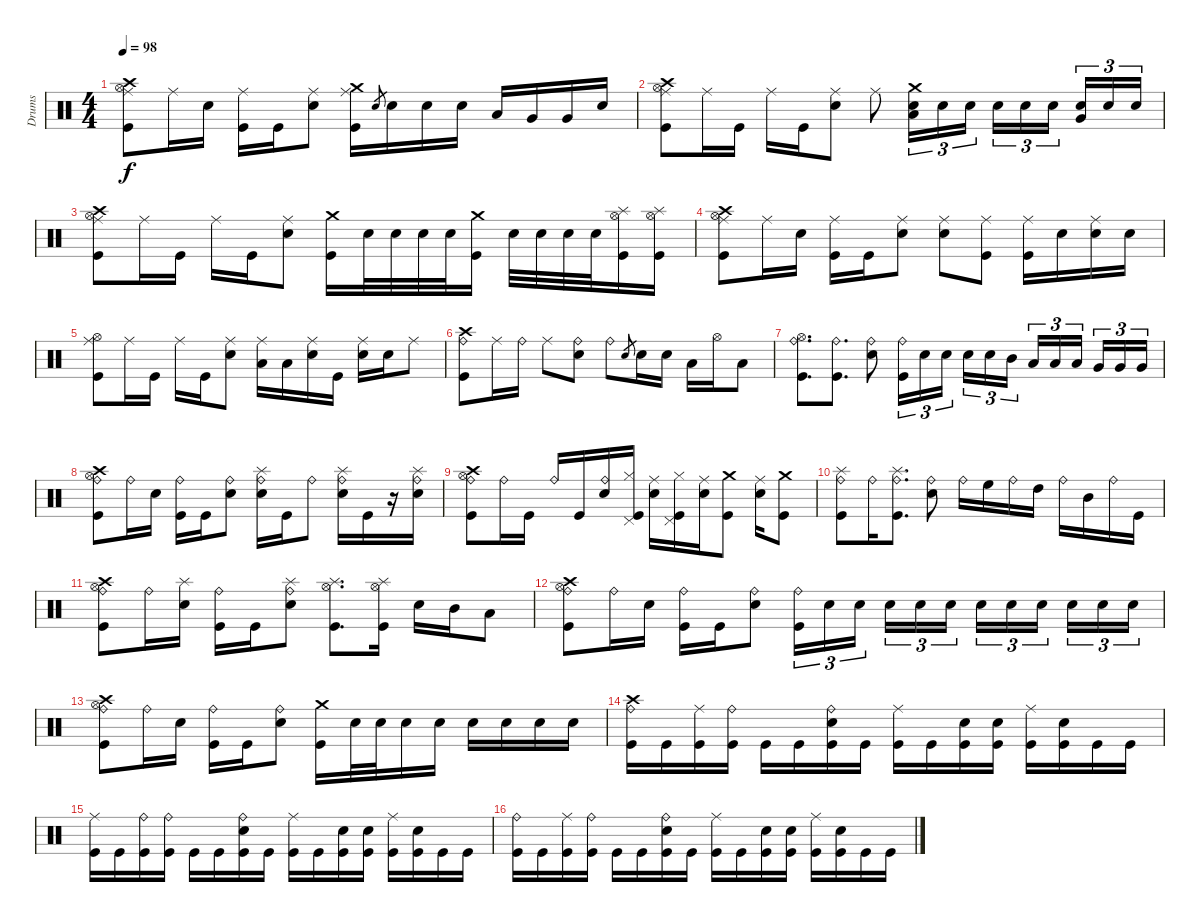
\track ("Drums" "Drums") {instrument percussion}
\staff {score}
\articulation defaults
\ts (4 4)
\tempo 98
\clef neutral
\ks aminor
("Ride (middle)" "Crash high (hit)" "Hi-Hat (open)" "Kick (hit)").8{dy f} "Ride (middle)".16 "Electric Snare (hit)".16 ("Ride (middle)" "Kick (hit)").16 "Kick (hit)".16 ("Ride (middle)" "Electric Snare (hit)").8 ("Crash medium (hit)" "Ride (middle)" "Kick (hit)").16 "Electric Snare (hit)".8{gr} "Electric Snare (hit)".16 "Electric Snare (hit)".16 "Electric Snare (hit)".16 "Low Tom (hit)".16 "Very Low Tom (hit)".16 "Very Low Tom (hit)".16 "Electric Snare (hit)".16 |
("Ride (middle)" "Crash high (hit)" "Hi-Hat (open)" "Kick (hit)").8 "Ride (middle)".16 "Kick (hit)".16 "Ride (middle)".16 "Kick (hit)".16 ("Ride (middle)" "Electric Snare (hit)").8 "Ride (middle)".8 ("Crash medium (hit)" "Low Tom (hit)" "Electric Snare (hit)").16{tu (3 2)} "Electric Snare (hit)".16{tu (3 2)} "Electric Snare (hit)".16{tu (3 2)} "Electric Snare (hit)".16{tu (3 2)} "Electric Snare (hit)".16{tu (3 2)} "Electric Snare (hit)".16{tu (3 2) beam splitsecondary} ("Very Low Tom (hit)" "Electric Snare (hit)").16{tu (3 2)} "Electric Snare (hit)".16{tu (3 2)} "Electric Snare (hit)".16{tu (3 2)} |
("Ride (middle)" "Crash high (hit)" "Hi-Hat (open)" "Kick (hit)").8 "Ride (middle)".16 "Kick (hit)".16 "Ride (middle)".16 "Kick (hit)".16 ("Ride (middle)" "Electric Snare (hit)").8 ("Crash medium (hit)" "Kick (hit)").16 "Electric Snare (hit)".32 "Electric Snare (hit)".32 "Electric Snare (hit)".32 "Electric Snare (hit)".32 ("Crash medium (hit)" "Kick (hit)").16 "Electric Snare (hit)".32 "Electric Snare (hit)".32 "Electric Snare (hit)".32 "Electric Snare (hit)".32 ("Splash (hit)" "Hi-Hat (open)" "Kick (hit)").16 ("Splash (hit)" "Hi-Hat (open)" "Kick (hit)").16 |
("Ride (middle)" "Crash high (hit)" "Hi-Hat (open)" "Kick (hit)").8 "Ride (middle)".16 "Electric Snare (hit)".16 ("Ride (middle)" "Kick (hit)").16 "Kick (hit)".16 ("Ride (middle)" "Electric Snare (hit)").8 ("Ride (middle)" "Electric Snare (hit)").8 ("Ride (middle)" "Kick (hit)").8 ("Ride (middle)" "Kick (hit)").16 "Electric Snare (hit)".16 ("Ride (middle)" "Electric Snare (hit)").16 "Electric Snare (hit)".16 |
("Ride (middle)" "Hi-Hat (open)" "Kick (hit)").8 "Ride (middle)".16 "Kick (hit)".16 "Ride (middle)".16 "Kick (hit)".16 ("Ride (middle)" "Electric Snare (hit)").8 ("Ride (middle)" "Low Tom (hit)").16 "Low Tom (hit)".16 ("Ride (middle)" "Electric Snare (hit)").16 "Kick (hit)".16 ("Ride (middle)" "Electric Snare (hit)").16 "Electric Snare (hit)".16 "Ride (middle)".8 |
("Crash high (hit)" "Ride (bell)" "Kick (hit)").8 "Ride (middle)".16 "Ride (bell)".16 "Ride (middle)".8 ("Ride (bell)" "Electric Snare (hit)").8 "Ride (bell)".8 "Electric Snare (hit)".8{gr} "Electric Snare (hit)".16 "Electric Snare (hit)".16 "Low Tom (hit)".16 "Hi-Hat (open)".16 "Low Tom (hit)".8 |
("Ride (bell)" "Hi-Hat (open)" "Kick (hit)").8{d} ("Ride (bell)" "Kick (hit)").8{d} ("Ride (bell)" "Electric Snare (hit)").8 ("Ride (bell)" "Kick (hit)").16{tu (3 2)} "Electric Snare (hit)".16{tu (3 2)} "Electric Snare (hit)".16{tu (3 2) beam splitsecondary} "Electric Snare (hit)".16{tu (3 2)} "Electric Snare (hit)".16{tu (3 2)} "Mid Tom (hit)".16{tu (3 2)} "Low Tom (hit)".16{tu (3 2)} "Low Tom (hit)".16{tu (3 2)} "Low Tom (hit)".16{tu (3 2) beam splitsecondary} "Very Low Tom (hit)".16{tu (3 2)} "Very Low Tom (hit)".16{tu (3 2)} "Very Low Tom (hit)".16{tu (3 2)} |
("Crash high (hit)" "Ride (bell)" "Hi-Hat (open)" "Kick (hit)").8 "Ride (bell)".16 "Electric Snare (hit)".16 ("Ride (bell)" "Kick (hit)").16 "Kick (hit)".16 ("Ride (bell)" "Electric Snare (hit)").8 ("Splash (hit)" "Ride (bell)" "Electric Snare (hit)").16 "Kick (hit)".16 "Ride (bell)".8 ("Splash (hit)" "Ride (bell)" "Electric Snare (hit)").16 "Kick (hit)".16 r.16 ("Splash (hit)" "Ride (bell)" "Electric Snare (hit)").16 |
("Ride (bell)" "Crash high (hit)" "Hi-Hat (open)" "Kick (hit)").8 "Ride (bell)".16 "Kick (hit)".16 "Ride (bell)".16 "Kick (hit)".16 ("Ride (bell)" "Electric Snare (hit)").16 ("Hi-Hat (closed)" "Pedal Hi-Hat (hit)" "Kick (hit)").16 ("Ride (middle)" "Electric Snare (hit)").16 ("Hi-Hat (closed)" "Pedal Hi-Hat (hit)" "Kick (hit)").16 ("Ride (middle)" "Electric Snare (hit)").16 ("Crash medium (hit)" "Kick (hit)").8 ("Ride (middle)" "Electric Snare (hit)").16 ("Crash medium (hit)" "Kick (hit)").8 |
("Ride (bell)" "Splash (hit)" "Kick (hit)").8 "Ride (bell)".16 ("Ride (bell)" "Splash (hit)" "Kick (hit)").8{d} ("Ride (bell)" "Electric Snare (hit)").8 "Ride (bell)".16 "High Floor Tom (hit)".16 "Ride (bell)".16 "High Tom (hit)".16 "Ride (bell)".16 "Mid Tom (hit)".16 "Ride (bell)".16 "Kick (hit)".16 |
("Crash high (hit)" "Ride (bell)" "Hi-Hat (open)" "Kick (hit)").8 "Ride (bell)".16 ("Splash (hit)" "Electric Snare (hit)").16 ("Ride (bell)" "Kick (hit)").16 "Kick (hit)".16 ("Splash (hit)" "Ride (bell)" "Electric Snare (hit)").8 ("Splash (hit)" "Hi-Hat (open)" "Kick (hit)").8{d} ("Splash (hit)" "Hi-Hat (open)" "Kick (hit)").16 "Electric Snare (hit)".16 "Mid Tom (hit)".16 "Low Tom (hit)".8 |
("Crash high (hit)" "Ride (bell)" "Hi-Hat (open)" "Kick (hit)").8 "Ride (bell)".16 "Electric Snare (hit)".16 ("Ride (bell)" "Kick (hit)").16 "Kick (hit)".16 ("Ride (bell)" "Electric Snare (hit)").8 ("Ride (bell)" "Kick (hit)").16{tu (3 2)} "Electric Snare (hit)".16{tu (3 2)} "Electric Snare (hit)".16{tu (3 2) beam splitsecondary} "Electric Snare (hit)".16{tu (3 2)} "Electric Snare (hit)".16{tu (3 2)} "Electric Snare (hit)".16{tu (3 2)} "Electric Snare (hit)".16{tu (3 2)} "Electric Snare (hit)".16{tu (3 2)} "Electric Snare (hit)".16{tu (3 2) beam splitsecondary} "Electric Snare (hit)".16{tu (3 2)} "Electric Snare (hit)".16{tu (3 2)} "Electric Snare (hit)".16{tu (3 2)} |
("Crash high (hit)" "Ride (bell)" "Hi-Hat (open)" "Kick (hit)").8 "Ride (bell)".16 "Electric Snare (hit)".16 ("Ride (bell)" "Kick (hit)").16 "Kick (hit)".16 ("Ride (bell)" "Electric Snare (hit)").8 ("Crash medium (hit)" "Kick (hit)").16 "Electric Snare (hit)".32 "Electric Snare (hit)".32 "Electric Snare (hit)".16 "Electric Snare (hit)".16 "Electric Snare (hit)".16 "Electric Snare (hit)".16 "Electric Snare (hit)".16 "Electric Snare (hit)".16 |
("Crash high (hit)" "Ride (bell)" "Kick (hit)").16 "Kick (hit)".16 ("Ride (middle)" "Kick (hit)").16 ("Ride (bell)" "Kick (hit)").16 "Kick (hit)".16 "Kick (hit)".16 ("Ride (bell)" "Electric Snare (hit)" "Kick (hit)").16 "Kick (hit)".16 ("Ride (middle)" "Kick (hit)").16 "Kick (hit)".16 ("Electric Snare (hit)" "Kick (hit)").16 ("Electric Snare (hit)" "Kick (hit)").16 ("Ride (middle)" "Kick (hit)").16 ("Electric Snare (hit)" "Kick (hit)").16 "Kick (hit)".16 "Kick (hit)".16 |
("Ride (middle)" "Kick (hit)").16 "Kick (hit)".16 ("Ride (bell)" "Kick (hit)").16 ("Ride (bell)" "Kick (hit)").16 "Kick (hit)".16 "Kick (hit)".16 ("Ride (bell)" "Electric Snare (hit)" "Kick (hit)").16 "Kick (hit)".16 ("Ride (middle)" "Kick (hit)").16 "Kick (hit)".16 ("Electric Snare (hit)" "Kick (hit)").16 ("Electric Snare (hit)" "Kick (hit)").16 ("Ride (middle)" "Kick (hit)").16 ("Electric Snare (hit)" "Kick (hit)").16 "Kick (hit)".16 "Kick (hit)".16 |
("Ride (bell)" "Kick (hit)").16 "Kick (hit)".16 ("Ride (middle)" "Kick (hit)").16 ("Ride (bell)" "Kick (hit)").16 "Kick (hit)".16 "Kick (hit)".16 ("Ride (bell)" "Electric Snare (hit)" "Kick (hit)").16 "Kick (hit)".16 ("Ride (middle)" "Kick (hit)").16 "Kick (hit)".16 ("Electric Snare (hit)" "Kick (hit)").16 ("Electric Snare (hit)" "Kick (hit)").16 ("Ride (middle)" "Kick (hit)").16 ("Electric Snare (hit)" "Kick (hit)").16 "Kick (hit)".16 "Kick (hit)".16
